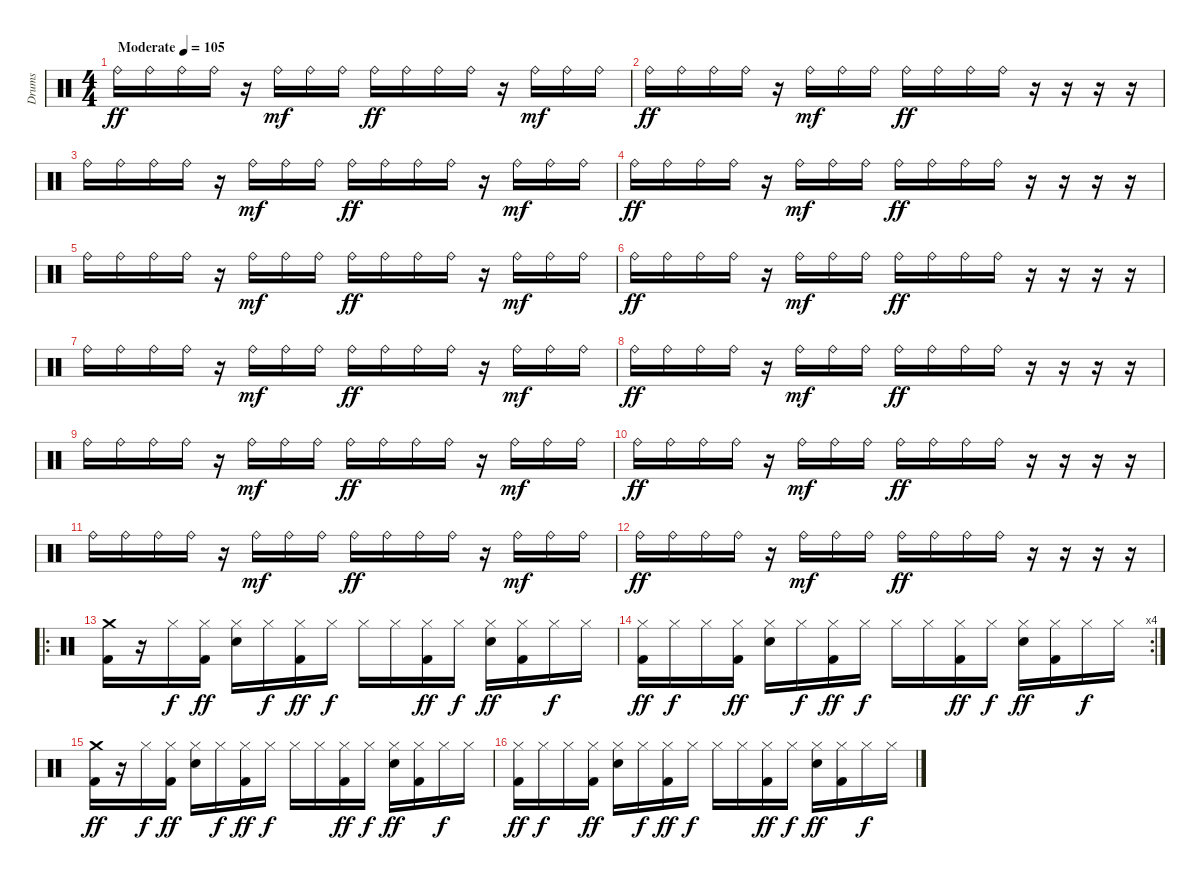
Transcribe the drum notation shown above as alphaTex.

\track ("Drums" "Drums") {instrument percussion}
\staff {score}
\articulation defaults
\ts (4 4)
\tempo (105 "Moderate")
\clef neutral
\ks c "Ride (bell)".16{dy ff} "Ride (bell)".16 "Ride (bell)".16 "Ride (bell)".16
r.16 "Ride (bell)".16{dy mf} "Ride (bell)".16 "Ride (bell)".16 "Ride (bell)".16{dy ff} "Ride (bell)".16 "Ride (bell)".16 "Ride (bell)".16 r.16 "Ride (bell)".16{dy mf} "Ride (bell)".16 "Ride (bell)".16 |
"Ride (bell)".16{dy ff} "Ride (bell)".16 "Ride (bell)".16 "Ride (bell)".16 r.16 "Ride (bell)".16{dy mf} "Ride (bell)".16 "Ride (bell)".16 "Ride (bell)".16{dy ff} "Ride (bell)".16 "Ride (bell)".16 "Ride (bell)".16 r.16 r.16 r.16 r.16 |
"Ride (bell)".16 "Ride (bell)".16 "Ride (bell)".16 "Ride (bell)".16 r.16 "Ride (bell)".16{dy mf} "Ride (bell)".16 "Ride (bell)".16 "Ride (bell)".16{dy ff} "Ride (bell)".16 "Ride (bell)".16 "Ride (bell)".16 r.16 "Ride (bell)".16{dy mf} "Ride (bell)".16 "Ride (bell)".16 |
"Ride (bell)".16{dy ff} "Ride (bell)".16 "Ride (bell)".16 "Ride (bell)".16 r.16 "Ride (bell)".16{dy mf} "Ride (bell)".16 "Ride (bell)".16 "Ride (bell)".16{dy ff} "Ride (bell)".16 "Ride (bell)".16 "Ride (bell)".16 r.16 r.16 r.16 r.16 |
"Ride (bell)".16 "Ride (bell)".16 "Ride (bell)".16 "Ride (bell)".16 r.16 "Ride (bell)".16{dy mf} "Ride (bell)".16 "Ride (bell)".16 "Ride (bell)".16{dy ff} "Ride (bell)".16 "Ride (bell)".16 "Ride (bell)".16 r.16 "Ride (bell)".16{dy mf} "Ride (bell)".16 "Ride (bell)".16 |
"Ride (bell)".16{dy ff} "Ride (bell)".16 "Ride (bell)".16 "Ride (bell)".16 r.16 "Ride (bell)".16{dy mf} "Ride (bell)".16 "Ride (bell)".16 "Ride (bell)".16{dy ff} "Ride (bell)".16 "Ride (bell)".16 "Ride (bell)".16 r.16 r.16 r.16 r.16 |
"Ride (bell)".16 "Ride (bell)".16 "Ride (bell)".16 "Ride (bell)".16 r.16 "Ride (bell)".16{dy mf} "Ride (bell)".16 "Ride (bell)".16 "Ride (bell)".16{dy ff} "Ride (bell)".16 "Ride (bell)".16 "Ride (bell)".16 r.16 "Ride (bell)".16{dy mf} "Ride (bell)".16 "Ride (bell)".16 |
"Ride (bell)".16{dy ff} "Ride (bell)".16 "Ride (bell)".16 "Ride (bell)".16 r.16 "Ride (bell)".16{dy mf} "Ride (bell)".16 "Ride (bell)".16 "Ride (bell)".16{dy ff} "Ride (bell)".16 "Ride (bell)".16 "Ride (bell)".16 r.16 r.16 r.16 r.16 |
"Ride (bell)".16 "Ride (bell)".16 "Ride (bell)".16 "Ride (bell)".16 r.16 "Ride (bell)".16{dy mf} "Ride (bell)".16 "Ride (bell)".16 "Ride (bell)".16{dy ff} "Ride (bell)".16 "Ride (bell)".16 "Ride (bell)".16 r.16 "Ride (bell)".16{dy mf} "Ride (bell)".16 "Ride (bell)".16 |
"Ride (bell)".16{dy ff} "Ride (bell)".16 "Ride (bell)".16 "Ride (bell)".16 r.16 "Ride (bell)".16{dy mf} "Ride (bell)".16 "Ride (bell)".16 "Ride (bell)".16{dy ff} "Ride (bell)".16 "Ride (bell)".16 "Ride (bell)".16 r.16 r.16 r.16 r.16 |
"Ride (bell)".16 "Ride (bell)".16 "Ride (bell)".16 "Ride (bell)".16 r.16 "Ride (bell)".16{dy mf} "Ride (bell)".16 "Ride (bell)".16 "Ride (bell)".16{dy ff} "Ride (bell)".16 "Ride (bell)".16 "Ride (bell)".16 r.16 "Ride (bell)".16{dy mf} "Ride (bell)".16 "Ride (bell)".16 |
"Ride (bell)".16{dy ff} "Ride (bell)".16 "Ride (bell)".16 "Ride (bell)".16 r.16 "Ride (bell)".16{dy mf} "Ride (bell)".16 "Ride (bell)".16 "Ride (bell)".16{dy ff} "Ride (bell)".16 "Ride (bell)".16 "Ride (bell)".16 r.16 r.16 r.16 r.16 |
\ro
("Crash medium (hit)" "Kick (hit) 2").16 r.16 "Hi-Hat (closed)".16{dy f} ("Hi-Hat (closed)" "Kick (hit) 2").16{dy ff} ("Hi-Hat (closed)" "Electric Snare (hit)").16 "Hi-Hat (closed)".16{dy f} ("Hi-Hat (closed)" "Kick (hit) 2").16{dy ff} "Hi-Hat (closed)".16{dy f} "Hi-Hat (closed)".16 "Hi-Hat (closed)".16 ("Hi-Hat (closed)" "Kick (hit) 2").16{dy ff} "Hi-Hat (closed)".16{dy f} ("Hi-Hat (closed)" "Electric Snare (hit)").16{dy ff} ("Hi-Hat (closed)" "Kick (hit) 2").16 "Hi-Hat (closed)".16{dy f} "Hi-Hat (closed)".16 |
\rc 4
("Hi-Hat (closed)" "Kick (hit) 2").16{dy ff} "Hi-Hat (closed)".16{dy f} "Hi-Hat (closed)".16 ("Hi-Hat (closed)" "Kick (hit) 2").16{dy ff} ("Hi-Hat (closed)" "Electric Snare (hit)").16 "Hi-Hat (closed)".16{dy f} ("Hi-Hat (closed)" "Kick (hit) 2").16{dy ff} "Hi-Hat (closed)".16{dy f} "Hi-Hat (closed)".16 "Hi-Hat (closed)".16 ("Hi-Hat (closed)" "Kick (hit) 2").16{dy ff} "Hi-Hat (closed)".16{dy f} ("Hi-Hat (closed)" "Electric Snare (hit)").16{dy ff} ("Hi-Hat (closed)" "Kick (hit) 2").16 "Hi-Hat (closed)".16{dy f} "Hi-Hat (closed)".16 |
("Crash medium (hit)" "Kick (hit) 2").16{dy ff} r.16 "Hi-Hat (closed)".16{dy f} ("Hi-Hat (closed)" "Kick (hit) 2").16{dy ff} ("Hi-Hat (closed)" "Electric Snare (hit)").16 "Hi-Hat (closed)".16{dy f} ("Hi-Hat (closed)" "Kick (hit) 2").16{dy ff} "Hi-Hat (closed)".16{dy f} "Hi-Hat (closed)".16 "Hi-Hat (closed)".16 ("Hi-Hat (closed)" "Kick (hit) 2").16{dy ff} "Hi-Hat (closed)".16{dy f} ("Hi-Hat (closed)" "Electric Snare (hit)").16{dy ff} ("Hi-Hat (closed)" "Kick (hit) 2").16 "Hi-Hat (closed)".16{dy f} "Hi-Hat (closed)".16 |
("Hi-Hat (closed)" "Kick (hit) 2").16{dy ff} "Hi-Hat (closed)".16{dy f} "Hi-Hat (closed)".16 ("Hi-Hat (closed)" "Kick (hit) 2").16{dy ff} ("Hi-Hat (closed)" "Electric Snare (hit)").16 "Hi-Hat (closed)".16{dy f} ("Hi-Hat (closed)" "Kick (hit) 2").16{dy ff} "Hi-Hat (closed)".16{dy f} "Hi-Hat (closed)".16 "Hi-Hat (closed)".16 ("Hi-Hat (closed)" "Kick (hit) 2").16{dy ff} "Hi-Hat (closed)".16{dy f} ("Hi-Hat (closed)" "Electric Snare (hit)").16{dy ff} ("Hi-Hat (closed)" "Kick (hit) 2").16 "Hi-Hat (closed)".16{dy f} "Hi-Hat (closed)".16
